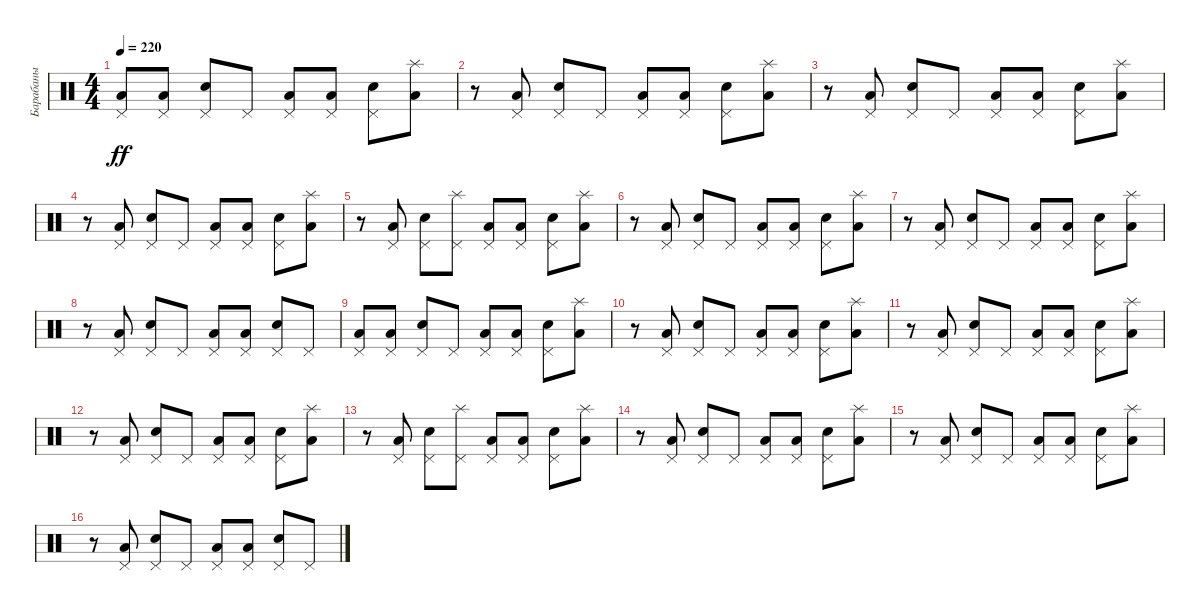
\track ("Барабаны" "Барабаны") {instrument percussion}
\staff {score}
\articulation defaults
\ts (4 4)
\tempo 220
\clef neutral
\ks c
("Low Floor Tom (hit)" "Pedal Hi-Hat (hit)").8{dy ff} ("Low Floor Tom (hit)" "Pedal Hi-Hat (hit)").8 ("Electric Snare (hit)" "Pedal Hi-Hat (hit)").8 "Pedal Hi-Hat (hit)".8 ("Low Floor Tom (hit)" "Pedal Hi-Hat (hit)").8 ("Low Floor Tom (hit)" "Pedal Hi-Hat (hit)").8 ("Electric Snare (hit)" "Pedal Hi-Hat (hit)").8 ("Low Floor Tom (hit)" "Splash (hit)").8 |
r.8 ("Low Floor Tom (hit)" "Pedal Hi-Hat (hit)").8 ("Electric Snare (hit)" "Pedal Hi-Hat (hit)").8 "Pedal Hi-Hat (hit)".8 ("Low Floor Tom (hit)" "Pedal Hi-Hat (hit)").8 ("Low Floor Tom (hit)" "Pedal Hi-Hat (hit)").8 ("Electric Snare (hit)" "Pedal Hi-Hat (hit)").8 ("Low Floor Tom (hit)" "Splash (hit)").8 |
r.8 ("Low Floor Tom (hit)" "Pedal Hi-Hat (hit)").8 ("Electric Snare (hit)" "Pedal Hi-Hat (hit)").8 "Pedal Hi-Hat (hit)".8 ("Low Floor Tom (hit)" "Pedal Hi-Hat (hit)").8 ("Low Floor Tom (hit)" "Pedal Hi-Hat (hit)").8 ("Electric Snare (hit)" "Pedal Hi-Hat (hit)").8 ("Low Floor Tom (hit)" "Splash (hit)").8 |
r.8 ("Low Floor Tom (hit)" "Pedal Hi-Hat (hit)").8 ("Electric Snare (hit)" "Pedal Hi-Hat (hit)").8 "Pedal Hi-Hat (hit)".8 ("Low Floor Tom (hit)" "Pedal Hi-Hat (hit)").8 ("Low Floor Tom (hit)" "Pedal Hi-Hat (hit)").8 ("Electric Snare (hit)" "Pedal Hi-Hat (hit)").8 ("Low Floor Tom (hit)" "Splash (hit)").8 |
r.8 ("Low Floor Tom (hit)" "Pedal Hi-Hat (hit)").8 ("Electric Snare (hit)" "Pedal Hi-Hat (hit)").8 ("Pedal Hi-Hat (hit)" "Splash (hit)").8 ("Low Floor Tom (hit)" "Pedal Hi-Hat (hit)").8 ("Low Floor Tom (hit)" "Pedal Hi-Hat (hit)").8 ("Electric Snare (hit)" "Pedal Hi-Hat (hit)").8 ("Low Floor Tom (hit)" "Splash (hit)").8 |
r.8 ("Low Floor Tom (hit)" "Pedal Hi-Hat (hit)").8 ("Electric Snare (hit)" "Pedal Hi-Hat (hit)").8 "Pedal Hi-Hat (hit)".8 ("Low Floor Tom (hit)" "Pedal Hi-Hat (hit)").8 ("Low Floor Tom (hit)" "Pedal Hi-Hat (hit)").8 ("Electric Snare (hit)" "Pedal Hi-Hat (hit)").8 ("Low Floor Tom (hit)" "Splash (hit)").8 |
r.8 ("Low Floor Tom (hit)" "Pedal Hi-Hat (hit)").8 ("Electric Snare (hit)" "Pedal Hi-Hat (hit)").8 "Pedal Hi-Hat (hit)".8 ("Low Floor Tom (hit)" "Pedal Hi-Hat (hit)").8 ("Low Floor Tom (hit)" "Pedal Hi-Hat (hit)").8 ("Electric Snare (hit)" "Pedal Hi-Hat (hit)").8 ("Low Floor Tom (hit)" "Splash (hit)").8 |
r.8 ("Low Floor Tom (hit)" "Pedal Hi-Hat (hit)").8 ("Electric Snare (hit)" "Pedal Hi-Hat (hit)").8 "Pedal Hi-Hat (hit)".8 ("Low Floor Tom (hit)" "Pedal Hi-Hat (hit)").8 ("Low Floor Tom (hit)" "Pedal Hi-Hat (hit)").8 ("Electric Snare (hit)" "Pedal Hi-Hat (hit)").8 "Pedal Hi-Hat (hit)".8 |
("Low Floor Tom (hit)" "Pedal Hi-Hat (hit)").8 ("Low Floor Tom (hit)" "Pedal Hi-Hat (hit)").8 ("Electric Snare (hit)" "Pedal Hi-Hat (hit)").8 "Pedal Hi-Hat (hit)".8 ("Low Floor Tom (hit)" "Pedal Hi-Hat (hit)").8 ("Low Floor Tom (hit)" "Pedal Hi-Hat (hit)").8 ("Electric Snare (hit)" "Pedal Hi-Hat (hit)").8 ("Low Floor Tom (hit)" "Splash (hit)").8 |
r.8 ("Low Floor Tom (hit)" "Pedal Hi-Hat (hit)").8 ("Electric Snare (hit)" "Pedal Hi-Hat (hit)").8 "Pedal Hi-Hat (hit)".8 ("Low Floor Tom (hit)" "Pedal Hi-Hat (hit)").8 ("Low Floor Tom (hit)" "Pedal Hi-Hat (hit)").8 ("Electric Snare (hit)" "Pedal Hi-Hat (hit)").8 ("Low Floor Tom (hit)" "Splash (hit)").8 |
r.8 ("Low Floor Tom (hit)" "Pedal Hi-Hat (hit)").8 ("Electric Snare (hit)" "Pedal Hi-Hat (hit)").8 "Pedal Hi-Hat (hit)".8 ("Low Floor Tom (hit)" "Pedal Hi-Hat (hit)").8 ("Low Floor Tom (hit)" "Pedal Hi-Hat (hit)").8 ("Electric Snare (hit)" "Pedal Hi-Hat (hit)").8 ("Low Floor Tom (hit)" "Splash (hit)").8 |
r.8 ("Low Floor Tom (hit)" "Pedal Hi-Hat (hit)").8 ("Electric Snare (hit)" "Pedal Hi-Hat (hit)").8 "Pedal Hi-Hat (hit)".8 ("Low Floor Tom (hit)" "Pedal Hi-Hat (hit)").8 ("Low Floor Tom (hit)" "Pedal Hi-Hat (hit)").8 ("Electric Snare (hit)" "Pedal Hi-Hat (hit)").8 ("Low Floor Tom (hit)" "Splash (hit)").8 |
r.8 ("Low Floor Tom (hit)" "Pedal Hi-Hat (hit)").8 ("Electric Snare (hit)" "Pedal Hi-Hat (hit)").8 ("Pedal Hi-Hat (hit)" "Splash (hit)").8 ("Low Floor Tom (hit)" "Pedal Hi-Hat (hit)").8 ("Low Floor Tom (hit)" "Pedal Hi-Hat (hit)").8 ("Electric Snare (hit)" "Pedal Hi-Hat (hit)").8 ("Low Floor Tom (hit)" "Splash (hit)").8 |
r.8 ("Low Floor Tom (hit)" "Pedal Hi-Hat (hit)").8 ("Electric Snare (hit)" "Pedal Hi-Hat (hit)").8 "Pedal Hi-Hat (hit)".8 ("Low Floor Tom (hit)" "Pedal Hi-Hat (hit)").8 ("Low Floor Tom (hit)" "Pedal Hi-Hat (hit)").8 ("Electric Snare (hit)" "Pedal Hi-Hat (hit)").8 ("Low Floor Tom (hit)" "Splash (hit)").8 |
r.8 ("Low Floor Tom (hit)" "Pedal Hi-Hat (hit)").8 ("Electric Snare (hit)" "Pedal Hi-Hat (hit)").8 "Pedal Hi-Hat (hit)".8 ("Low Floor Tom (hit)" "Pedal Hi-Hat (hit)").8 ("Low Floor Tom (hit)" "Pedal Hi-Hat (hit)").8 ("Electric Snare (hit)" "Pedal Hi-Hat (hit)").8 ("Low Floor Tom (hit)" "Splash (hit)").8 |
r.8 ("Low Floor Tom (hit)" "Pedal Hi-Hat (hit)").8 ("Electric Snare (hit)" "Pedal Hi-Hat (hit)").8 "Pedal Hi-Hat (hit)".8 ("Low Floor Tom (hit)" "Pedal Hi-Hat (hit)").8 ("Low Floor Tom (hit)" "Pedal Hi-Hat (hit)").8 ("Electric Snare (hit)" "Pedal Hi-Hat (hit)").8 "Pedal Hi-Hat (hit)".8
